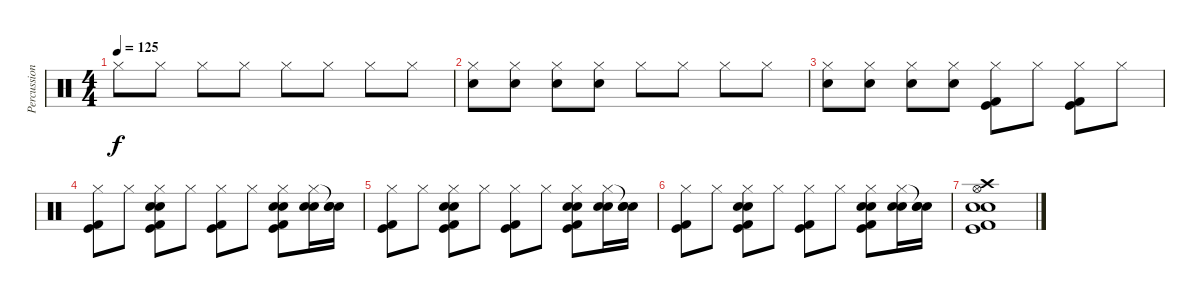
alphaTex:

\track ("Percussion" "Percussion") {instrument percussion}
\staff {score}
\articulation defaults
\ts (4 4)
\tempo 125
\clef neutral
\ks c "Hi-Hat (closed)".8{dy f} "Hi-Hat (closed)".8 "Hi-Hat (closed)".8 "Hi-Hat (closed)".8 "Hi-Hat (closed)".8 "Hi-Hat (closed)".8 "Hi-Hat (closed)".8 "Hi-Hat (closed)".8
|
("Hi-Hat (closed)" "Electric Snare (hit)").8 ("Hi-Hat (closed)" "Electric Snare (hit)").8 ("Hi-Hat (closed)" "Electric Snare (hit)").8 ("Hi-Hat (closed)" "Electric Snare (hit)").8 "Hi-Hat (closed)".8 "Hi-Hat (closed)".8 "Hi-Hat (closed)".8 "Hi-Hat (closed)".8 |
("Hi-Hat (closed)" "Electric Snare (hit)").8 ("Hi-Hat (closed)" "Electric Snare (hit)").8 ("Hi-Hat (closed)" "Electric Snare (hit)").8 ("Hi-Hat (closed)" "Electric Snare (hit)").8 ("Hi-Hat (closed)" "Kick (hit) 2" "Kick (hit)").8 "Hi-Hat (closed)".8 ("Hi-Hat (closed)" "Kick (hit) 2" "Kick (hit)").8 "Hi-Hat (closed)".8 |
("Hi-Hat (closed)" "Kick (hit) 2" "Kick (hit)").8 "Hi-Hat (closed)".8 ("Hi-Hat (closed)" "Electric Snare (hit)" "Electric Snare (hit)" "Kick (hit) 2" "Kick (hit)").8 "Hi-Hat (closed)".8 ("Hi-Hat (closed)" "Kick (hit) 2" "Kick (hit)").8 "Hi-Hat (closed)".8 ("Hi-Hat (closed)" "Electric Snare (hit)" "Electric Snare (hit)" "Kick (hit) 2" "Kick (hit)").8 ("Hi-Hat (closed)" "Electric Snare (hit)" "Electric Snare (hit)").16 ("Snare (hit)"{t} "Electric Snare (hit)" "Electric Snare (hit)").16 |
("Hi-Hat (closed)" "Kick (hit) 2" "Kick (hit)").8 "Hi-Hat (closed)".8 ("Hi-Hat (closed)" "Electric Snare (hit)" "Electric Snare (hit)" "Kick (hit) 2" "Kick (hit)").8 "Hi-Hat (closed)".8 ("Hi-Hat (closed)" "Kick (hit) 2" "Kick (hit)").8 "Hi-Hat (closed)".8 ("Hi-Hat (closed)" "Electric Snare (hit)" "Electric Snare (hit)" "Kick (hit) 2" "Kick (hit)").8 ("Hi-Hat (closed)" "Electric Snare (hit)" "Electric Snare (hit)").16 ("Snare (hit)"{t} "Electric Snare (hit)" "Electric Snare (hit)").16 |
("Hi-Hat (closed)" "Kick (hit) 2" "Kick (hit)").8 "Hi-Hat (closed)".8 ("Hi-Hat (closed)" "Electric Snare (hit)" "Electric Snare (hit)" "Kick (hit) 2" "Kick (hit)").8 "Hi-Hat (closed)".8 ("Hi-Hat (closed)" "Kick (hit) 2" "Kick (hit)").8 "Hi-Hat (closed)".8 ("Hi-Hat (closed)" "Electric Snare (hit)" "Electric Snare (hit)" "Kick (hit) 2" "Kick (hit)").8 ("Hi-Hat (closed)" "Electric Snare (hit)" "Electric Snare (hit)").16 ("Snare (hit)"{t} "Electric Snare (hit)" "Electric Snare (hit)").16 |
("Hi-Hat (open)" "Crash high (hit)" "Electric Snare (hit)" "Electric Snare (hit)" "Kick (hit) 2" "Kick (hit)").1
